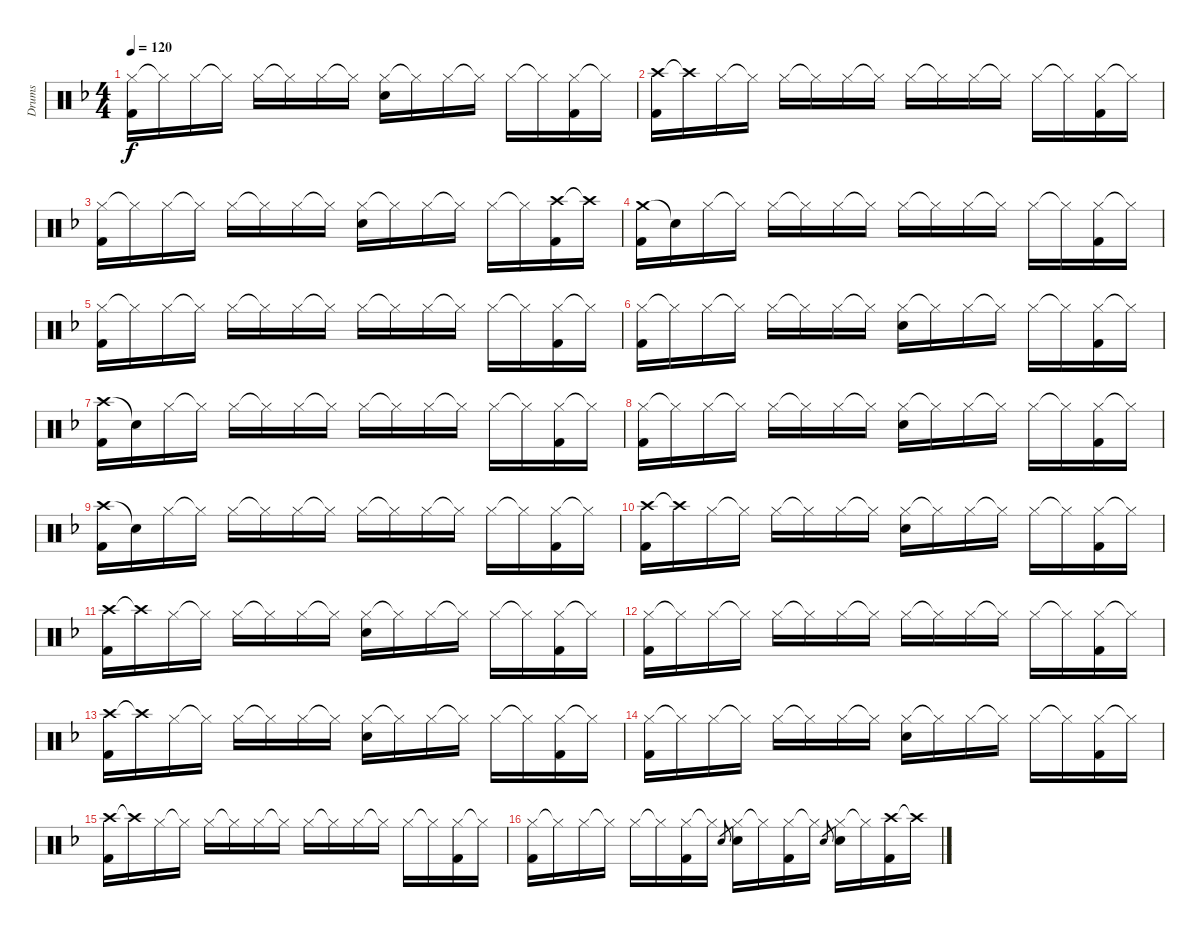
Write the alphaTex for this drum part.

\track ("Drums" "Drums") {instrument percussion}
\staff {score}
\articulation defaults
\ts (4 4)
\tempo 120
\clef neutral
\ks f
("Hi-Hat (closed)" "Kick (hit) 2").16{dy f} "Hi-Hat (closed)"{t}.16 "Hi-Hat (closed)".16 "Hi-Hat (closed)"{t}.16 "Hi-Hat (closed)".16 "Hi-Hat (closed)"{t}.16 "Hi-Hat (closed)".16 "Hi-Hat (closed)"{t}.16 ("Hi-Hat (closed)" "Snare (hit) 2").16 "Hi-Hat (closed)"{t}.16 "Hi-Hat (closed)".16 "Hi-Hat (closed)"{t}.16 "Hi-Hat (closed)".16 "Hi-Hat (closed)"{t}.16 ("Hi-Hat (closed)" "Kick (hit) 2").16 "Hi-Hat (closed)"{t}.16 |
("Crash high (hit)" "Kick (hit) 2").16 "Crash high (hit)"{t}.16 "Hi-Hat (closed)".16 "Hi-Hat (closed)"{t}.16 "Hi-Hat (closed)".16 "Hi-Hat (closed)"{t}.16 "Hi-Hat (closed)".16 "Hi-Hat (closed)"{t}.16 "Hi-Hat (closed)".16 "Hi-Hat (closed)"{t}.16 "Hi-Hat (closed)".16 "Hi-Hat (closed)"{t}.16 "Hi-Hat (closed)".16 "Hi-Hat (closed)"{t}.16 ("Hi-Hat (closed)" "Kick (hit) 2").16 "Hi-Hat (closed)"{t}.16 |
("Hi-Hat (closed)" "Kick (hit) 2").16 "Hi-Hat (closed)"{t}.16 "Hi-Hat (closed)".16 "Hi-Hat (closed)"{t}.16 "Hi-Hat (closed)".16 "Hi-Hat (closed)"{t}.16 "Hi-Hat (closed)".16 "Hi-Hat (closed)"{t}.16 ("Hi-Hat (closed)" "Snare (hit) 2").16 "Hi-Hat (closed)"{t}.16 "Hi-Hat (closed)".16 "Hi-Hat (closed)"{t}.16 "Hi-Hat (closed)".16 "Hi-Hat (closed)"{t}.16 ("Crash high (hit)" "Kick (hit) 2").16 "Crash high (hit)"{t}.16 |
("Crash medium (hit)" "Kick (hit) 2").16 "Snare (hit)"{t}.16 "Hi-Hat (closed)".16 "Hi-Hat (closed)"{t}.16 "Hi-Hat (closed)".16 "Hi-Hat (closed)"{t}.16 "Hi-Hat (closed)".16 "Hi-Hat (closed)"{t}.16 "Hi-Hat (closed)".16 "Hi-Hat (closed)"{t}.16 "Hi-Hat (closed)".16 "Hi-Hat (closed)"{t}.16 "Hi-Hat (closed)".16 "Hi-Hat (closed)"{t}.16 ("Hi-Hat (closed)" "Kick (hit) 2").16 "Hi-Hat (closed)"{t}.16 |
("Hi-Hat (closed)" "Kick (hit) 2").16 "Hi-Hat (closed)"{t}.16 "Hi-Hat (closed)".16 "Hi-Hat (closed)"{t}.16 "Hi-Hat (closed)".16 "Hi-Hat (closed)"{t}.16 "Hi-Hat (closed)".16 "Hi-Hat (closed)"{t}.16 "Hi-Hat (closed)".16 "Hi-Hat (closed)"{t}.16 "Hi-Hat (closed)".16 "Hi-Hat (closed)"{t}.16 "Hi-Hat (closed)".16 "Hi-Hat (closed)"{t}.16 ("Hi-Hat (closed)" "Kick (hit) 2").16 "Hi-Hat (closed)"{t}.16 |
("Hi-Hat (closed)" "Kick (hit) 2").16 "Hi-Hat (closed)"{t}.16 "Hi-Hat (closed)".16 "Hi-Hat (closed)"{t}.16 "Hi-Hat (closed)".16 "Hi-Hat (closed)"{t}.16 "Hi-Hat (closed)".16 "Hi-Hat (closed)"{t}.16 ("Hi-Hat (closed)" "Snare (hit) 2").16 "Hi-Hat (closed)"{t}.16 "Hi-Hat (closed)".16 "Hi-Hat (closed)"{t}.16 "Hi-Hat (closed)".16 "Hi-Hat (closed)"{t}.16 ("Hi-Hat (closed)" "Kick (hit) 2").16 "Hi-Hat (closed)"{t}.16 |
("Crash high (hit)" "Kick (hit) 2").16 "Snare (hit)"{t}.16 "Hi-Hat (closed)".16 "Hi-Hat (closed)"{t}.16 "Hi-Hat (closed)".16 "Hi-Hat (closed)"{t}.16 "Hi-Hat (closed)".16 "Hi-Hat (closed)"{t}.16 "Hi-Hat (closed)".16 "Hi-Hat (closed)"{t}.16 "Hi-Hat (closed)".16 "Hi-Hat (closed)"{t}.16 "Hi-Hat (closed)".16 "Hi-Hat (closed)"{t}.16 ("Hi-Hat (closed)" "Kick (hit) 2").16 "Hi-Hat (closed)"{t}.16 |
("Hi-Hat (closed)" "Kick (hit) 2").16 "Hi-Hat (closed)"{t}.16 "Hi-Hat (closed)".16 "Hi-Hat (closed)"{t}.16 "Hi-Hat (closed)".16 "Hi-Hat (closed)"{t}.16 "Hi-Hat (closed)".16 "Hi-Hat (closed)"{t}.16 ("Hi-Hat (closed)" "Snare (hit) 2").16 "Hi-Hat (closed)"{t}.16 "Hi-Hat (closed)".16 "Hi-Hat (closed)"{t}.16 "Hi-Hat (closed)".16 "Hi-Hat (closed)"{t}.16 ("Hi-Hat (closed)" "Kick (hit) 2").16 "Hi-Hat (closed)"{t}.16 |
("Crash high (hit)" "Kick (hit) 2").16 "Snare (hit)"{t}.16 "Hi-Hat (closed)".16 "Hi-Hat (closed)"{t}.16 "Hi-Hat (closed)".16 "Hi-Hat (closed)"{t}.16 "Hi-Hat (closed)".16 "Hi-Hat (closed)"{t}.16 "Hi-Hat (closed)".16 "Hi-Hat (closed)"{t}.16 "Hi-Hat (closed)".16 "Hi-Hat (closed)"{t}.16 "Hi-Hat (closed)".16 "Hi-Hat (closed)"{t}.16 ("Hi-Hat (closed)" "Kick (hit) 2").16 "Hi-Hat (closed)"{t}.16 |
("Crash high (hit)" "Kick (hit) 2").16 "Crash high (hit)"{t}.16 "Hi-Hat (closed)".16 "Hi-Hat (closed)"{t}.16 "Hi-Hat (closed)".16 "Hi-Hat (closed)"{t}.16 "Hi-Hat (closed)".16 "Hi-Hat (closed)"{t}.16 ("Hi-Hat (closed)" "Snare (hit) 2").16 "Hi-Hat (closed)"{t}.16 "Hi-Hat (closed)".16 "Hi-Hat (closed)"{t}.16 "Hi-Hat (closed)".16 "Hi-Hat (closed)"{t}.16 ("Hi-Hat (closed)" "Kick (hit) 2").16 "Hi-Hat (closed)"{t}.16 |
("Crash high (hit)" "Kick (hit) 2").16 "Crash high (hit)"{t}.16 "Hi-Hat (closed)".16 "Hi-Hat (closed)"{t}.16 "Hi-Hat (closed)".16 "Hi-Hat (closed)"{t}.16 "Hi-Hat (closed)".16 "Hi-Hat (closed)"{t}.16 ("Hi-Hat (closed)" "Snare (hit) 2").16 "Hi-Hat (closed)"{t}.16 "Hi-Hat (closed)".16 "Hi-Hat (closed)"{t}.16 "Hi-Hat (closed)".16 "Hi-Hat (closed)"{t}.16 ("Hi-Hat (closed)" "Kick (hit) 2").16 "Hi-Hat (closed)"{t}.16 |
("Hi-Hat (closed)" "Kick (hit) 2").16 "Hi-Hat (closed)"{t}.16 "Hi-Hat (closed)".16 "Hi-Hat (closed)"{t}.16 "Hi-Hat (closed)".16 "Hi-Hat (closed)"{t}.16 "Hi-Hat (closed)".16 "Hi-Hat (closed)"{t}.16 "Hi-Hat (closed)".16 "Hi-Hat (closed)"{t}.16 "Hi-Hat (closed)".16 "Hi-Hat (closed)"{t}.16 "Hi-Hat (closed)".16 "Hi-Hat (closed)"{t}.16 ("Hi-Hat (closed)" "Kick (hit) 2").16 "Hi-Hat (closed)"{t}.16 |
("Crash high (hit)" "Kick (hit) 2").16 "Crash high (hit)"{t}.16 "Hi-Hat (closed)".16 "Hi-Hat (closed)"{t}.16 "Hi-Hat (closed)".16 "Hi-Hat (closed)"{t}.16 "Hi-Hat (closed)".16 "Hi-Hat (closed)"{t}.16 ("Hi-Hat (closed)" "Snare (hit) 2").16 "Hi-Hat (closed)"{t}.16 "Hi-Hat (closed)".16 "Hi-Hat (closed)"{t}.16 "Hi-Hat (closed)".16 "Hi-Hat (closed)"{t}.16 ("Hi-Hat (closed)" "Kick (hit) 2").16 "Hi-Hat (closed)"{t}.16 |
("Hi-Hat (closed)" "Kick (hit) 2").16 "Hi-Hat (closed)"{t}.16 "Hi-Hat (closed)".16 "Hi-Hat (closed)"{t}.16 "Hi-Hat (closed)".16 "Hi-Hat (closed)"{t}.16 "Hi-Hat (closed)".16 "Hi-Hat (closed)"{t}.16 ("Hi-Hat (closed)" "Snare (hit) 2").16 "Hi-Hat (closed)"{t}.16 "Hi-Hat (closed)".16 "Hi-Hat (closed)"{t}.16 "Hi-Hat (closed)".16 "Hi-Hat (closed)"{t}.16 ("Hi-Hat (closed)" "Kick (hit) 2").16 "Hi-Hat (closed)"{t}.16 |
("Crash high (hit)" "Kick (hit) 2").16 "Crash high (hit)"{t}.16 "Hi-Hat (closed)".16 "Hi-Hat (closed)"{t}.16 "Hi-Hat (closed)".16 "Hi-Hat (closed)"{t}.16 "Hi-Hat (closed)".16 "Hi-Hat (closed)"{t}.16 "Hi-Hat (closed)".16 "Hi-Hat (closed)"{t}.16 "Hi-Hat (closed)".16 "Hi-Hat (closed)"{t}.16 "Hi-Hat (closed)".16 "Hi-Hat (closed)"{t}.16 ("Hi-Hat (closed)" "Kick (hit) 2").16 "Hi-Hat (closed)"{t}.16 |
("Hi-Hat (closed)" "Kick (hit) 2").16 "Hi-Hat (closed)"{t}.16 "Hi-Hat (closed)".16 "Hi-Hat (closed)"{t}.16 "Hi-Hat (closed)".16 "Hi-Hat (closed)"{t}.16 ("Hi-Hat (closed)" "Kick (hit) 2").16 "Hi-Hat (closed)"{t}.16 "Snare (hit) 2".8{gr} ("Hi-Hat (closed)" "Snare (hit) 2").16 "Hi-Hat (closed)"{t}.16 ("Hi-Hat (closed)" "Kick (hit) 2").16 "Hi-Hat (closed)"{t}.16 "Snare (hit) 2".8{gr} ("Hi-Hat (closed)" "Snare (hit) 2").16 "Hi-Hat (closed)"{t}.16 ("Crash high (hit)" "Kick (hit) 2").16 "Crash high (hit)"{t}.16
